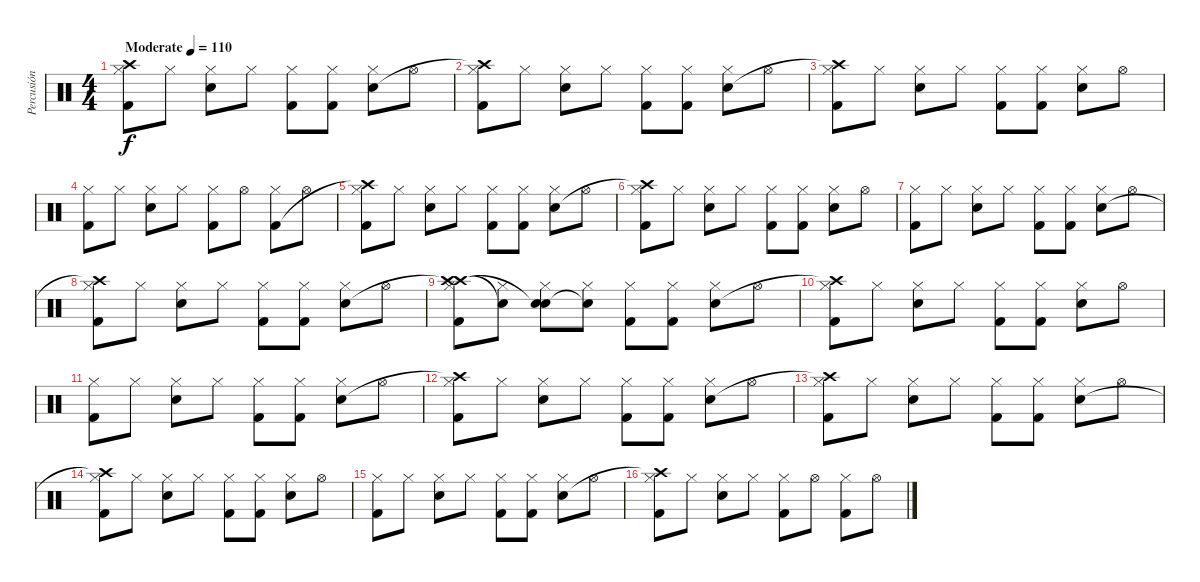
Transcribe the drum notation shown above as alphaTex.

\track ("Percusión" "Percusión") {instrument percussion}
\staff {score}
\articulation defaults
\ts (4 4)
\tempo (110 "Moderate")
\clef neutral
\ks c
("Hi-Hat (closed)" "Crash high (hit)" "Kick (hit) 2").8{dy f} "Hi-Hat (closed)".8 ("Hi-Hat (closed)" "Electric Snare (hit)").8 "Hi-Hat (closed)".8 ("Hi-Hat (closed)" "Kick (hit) 2").8 ("Hi-Hat (closed)" "Kick (hit) 2").8 ("Hi-Hat (closed)" "Electric Snare (hit)").8 "Hi-Hat (open)".8 |
("Hi-Hat (closed)" "Crash high (hit)"{t} "Kick (hit) 2").8 "Hi-Hat (closed)".8 ("Hi-Hat (closed)" "Electric Snare (hit)").8 "Hi-Hat (closed)".8 ("Hi-Hat (closed)" "Kick (hit) 2").8 ("Hi-Hat (closed)" "Kick (hit) 2").8 ("Hi-Hat (closed)" "Electric Snare (hit)").8 "Hi-Hat (open)".8 |
("Hi-Hat (closed)" "Crash high (hit)"{t} "Kick (hit) 2").8 "Hi-Hat (closed)".8 ("Hi-Hat (closed)" "Electric Snare (hit)").8 "Hi-Hat (closed)".8 ("Hi-Hat (closed)" "Kick (hit) 2").8 ("Hi-Hat (closed)" "Kick (hit) 2").8 ("Hi-Hat (closed)" "Electric Snare (hit)").8 "Hi-Hat (open)".8 |
("Hi-Hat (closed)" "Kick (hit) 2").8 "Hi-Hat (closed)".8 ("Hi-Hat (closed)" "Electric Snare (hit)").8 "Hi-Hat (closed)".8 ("Hi-Hat (closed)" "Kick (hit) 2").8 "Hi-Hat (open)".8 ("Hi-Hat (closed)" "Kick (hit) 2").8 "Hi-Hat (open)".8 |
("Hi-Hat (closed)" "Crash high (hit)"{t} "Kick (hit) 2").8 "Hi-Hat (closed)".8 ("Hi-Hat (closed)" "Electric Snare (hit)").8 "Hi-Hat (closed)".8 ("Hi-Hat (closed)" "Kick (hit) 2").8 ("Hi-Hat (closed)" "Kick (hit) 2").8 ("Hi-Hat (closed)" "Electric Snare (hit)").8 "Hi-Hat (open)".8 |
("Hi-Hat (closed)" "Crash high (hit)"{t} "Kick (hit) 2").8 "Hi-Hat (closed)".8 ("Hi-Hat (closed)" "Electric Snare (hit)").8 "Hi-Hat (closed)".8 ("Hi-Hat (closed)" "Kick (hit) 2").8 ("Hi-Hat (closed)" "Kick (hit) 2").8 ("Hi-Hat (closed)" "Electric Snare (hit)").8 "Hi-Hat (open)".8 |
("Hi-Hat (closed)" "Kick (hit) 2").8 "Hi-Hat (closed)".8 ("Hi-Hat (closed)" "Electric Snare (hit)").8 "Hi-Hat (closed)".8 ("Hi-Hat (closed)" "Kick (hit) 2").8 ("Hi-Hat (closed)" "Kick (hit) 2").8 ("Hi-Hat (closed)" "Electric Snare (hit)").8 "Hi-Hat (open)".8 |
("Hi-Hat (closed)" "Crash high (hit)"{t} "Kick (hit) 2").8 "Hi-Hat (closed)".8 ("Hi-Hat (closed)" "Electric Snare (hit)").8 "Hi-Hat (closed)".8 ("Hi-Hat (closed)" "Kick (hit) 2").8 ("Hi-Hat (closed)" "Kick (hit) 2").8 ("Hi-Hat (closed)" "Electric Snare (hit)").8 "Hi-Hat (open)".8 |
("Hi-Hat (closed)" "Crash high (hit)"{t} "Crash high (hit)" "Kick (hit) 2").8 ("Hi-Hat (closed)" "Snare (hit)"{t}).8 ("Hi-Hat (closed)" "Electric Snare (hit)" "Snare (hit)"{t}).8 ("Hi-Hat (closed)" "Snare (hit)"{t}).8 ("Hi-Hat (closed)" "Kick (hit) 2").8 ("Hi-Hat (closed)" "Kick (hit) 2").8 ("Hi-Hat (closed)" "Electric Snare (hit)").8 "Hi-Hat (open)".8 |
("Hi-Hat (closed)" "Crash high (hit)"{t} "Kick (hit) 2").8 "Hi-Hat (closed)".8 ("Hi-Hat (closed)" "Electric Snare (hit)").8 "Hi-Hat (closed)".8 ("Hi-Hat (closed)" "Kick (hit) 2").8 ("Hi-Hat (closed)" "Kick (hit) 2").8 ("Hi-Hat (closed)" "Electric Snare (hit)").8 "Hi-Hat (open)".8 |
("Hi-Hat (closed)" "Kick (hit) 2").8 "Hi-Hat (closed)".8 ("Hi-Hat (closed)" "Electric Snare (hit)").8 "Hi-Hat (closed)".8 ("Hi-Hat (closed)" "Kick (hit) 2").8 ("Hi-Hat (closed)" "Kick (hit) 2").8 ("Hi-Hat (closed)" "Electric Snare (hit)").8 "Hi-Hat (open)".8 |
("Hi-Hat (closed)" "Crash high (hit)"{t} "Kick (hit) 2").8 "Hi-Hat (closed)".8 ("Hi-Hat (closed)" "Electric Snare (hit)").8 "Hi-Hat (closed)".8 ("Hi-Hat (closed)" "Kick (hit) 2").8 ("Hi-Hat (closed)" "Kick (hit) 2").8 ("Hi-Hat (closed)" "Electric Snare (hit)").8 "Hi-Hat (open)".8 |
("Hi-Hat (closed)" "Crash high (hit)"{t} "Kick (hit) 2").8 "Hi-Hat (closed)".8 ("Hi-Hat (closed)" "Electric Snare (hit)").8 "Hi-Hat (closed)".8 ("Hi-Hat (closed)" "Kick (hit) 2").8 ("Hi-Hat (closed)" "Kick (hit) 2").8 ("Hi-Hat (closed)" "Electric Snare (hit)").8 "Hi-Hat (open)".8 |
("Hi-Hat (closed)" "Crash high (hit)"{t} "Kick (hit) 2").8 "Hi-Hat (closed)".8 ("Hi-Hat (closed)" "Electric Snare (hit)").8 "Hi-Hat (closed)".8 ("Hi-Hat (closed)" "Kick (hit) 2").8 ("Hi-Hat (closed)" "Kick (hit) 2").8 ("Hi-Hat (closed)" "Electric Snare (hit)").8 "Hi-Hat (open)".8 |
("Hi-Hat (closed)" "Kick (hit) 2").8 "Hi-Hat (closed)".8 ("Hi-Hat (closed)" "Electric Snare (hit)").8 "Hi-Hat (closed)".8 ("Hi-Hat (closed)" "Kick (hit) 2").8 ("Hi-Hat (closed)" "Kick (hit) 2").8 ("Hi-Hat (closed)" "Electric Snare (hit)").8 "Hi-Hat (open)".8 |
("Hi-Hat (closed)" "Crash high (hit)"{t} "Kick (hit) 2").8 "Hi-Hat (closed)".8 ("Hi-Hat (closed)" "Electric Snare (hit)").8 "Hi-Hat (closed)".8 ("Hi-Hat (closed)" "Kick (hit) 2").8 "Hi-Hat (open)".8 ("Hi-Hat (closed)" "Kick (hit) 2").8 "Hi-Hat (open)".8
